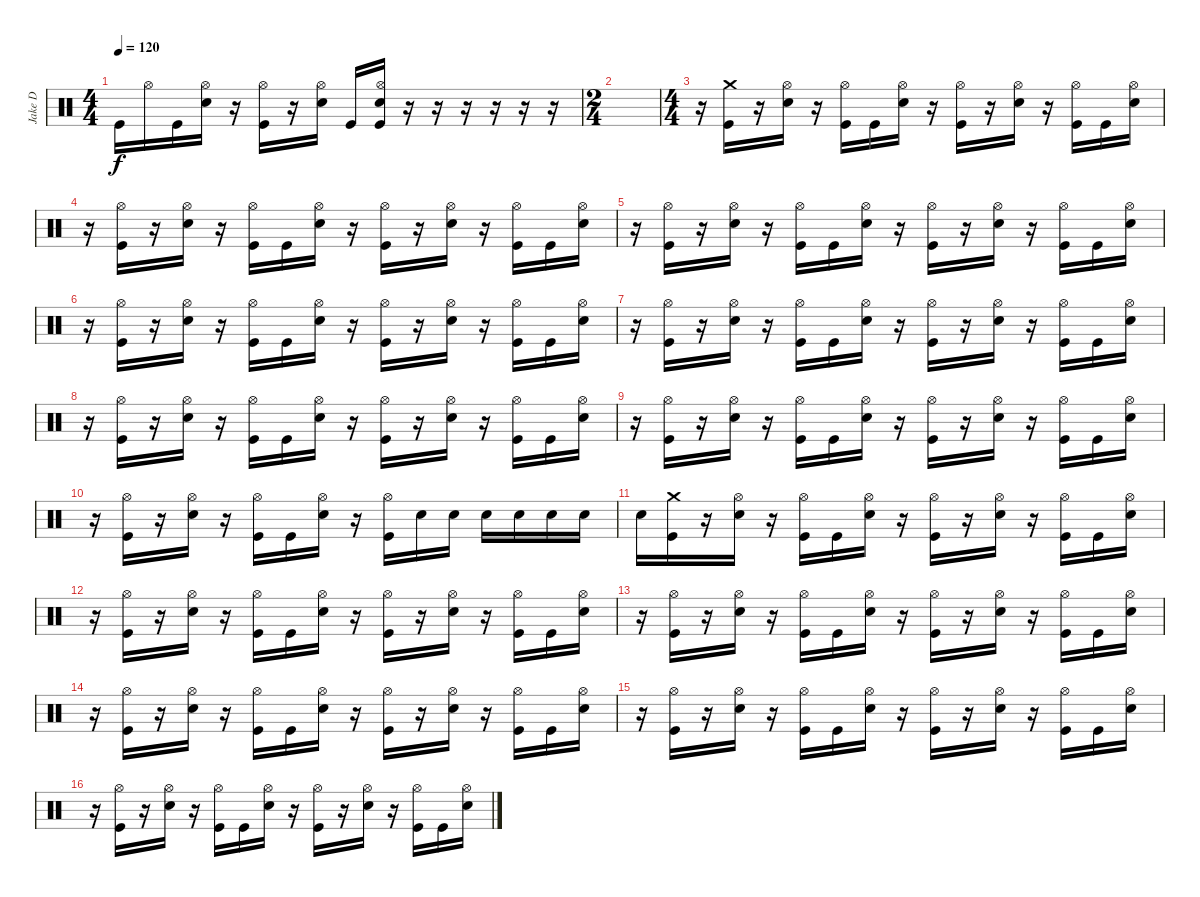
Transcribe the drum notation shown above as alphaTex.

\track ("Jake D" "Jake D") {instrument percussion}
\staff {score}
\articulation defaults
\ts (4 4)
\tempo 120
\clef neutral
\ks c "Kick (hit)".16{dy f} "Hi-Hat (open)".16 "Kick (hit)".16
("Hi-Hat (open)" "Electric Snare (hit)").16 r.16 ("Hi-Hat (open)" "Kick (hit)").16 r.16 ("Hi-Hat (open)" "Electric Snare (hit)").16 "Kick (hit)".16 ("Hi-Hat (open)" "Electric Snare (hit)" "Kick (hit)").16 r.16 r.16 r.16 r.16 r.16 r.16 |
\ts (2 4)
|
\ts (4 4)
r.16 ("Crash medium (hit)" "Kick (hit)").16 r.16 ("Hi-Hat (open)" "Electric Snare (hit)").16 r.16 ("Hi-Hat (open)" "Kick (hit)").16 "Kick (hit)".16 ("Hi-Hat (open)" "Electric Snare (hit)").16 r.16 ("Hi-Hat (open)" "Kick (hit)").16 r.16 ("Hi-Hat (open)" "Electric Snare (hit)").16 r.16 ("Hi-Hat (open)" "Kick (hit)").16 "Kick (hit)".16 ("Hi-Hat (open)" "Electric Snare (hit)").16 |
r.16 ("Hi-Hat (open)" "Kick (hit)").16 r.16 ("Hi-Hat (open)" "Electric Snare (hit)").16 r.16 ("Hi-Hat (open)" "Kick (hit)").16 "Kick (hit)".16 ("Hi-Hat (open)" "Electric Snare (hit)").16 r.16 ("Hi-Hat (open)" "Kick (hit)").16 r.16 ("Hi-Hat (open)" "Electric Snare (hit)").16 r.16 ("Hi-Hat (open)" "Kick (hit)").16 "Kick (hit)".16 ("Hi-Hat (open)" "Electric Snare (hit)").16 |
r.16 ("Hi-Hat (open)" "Kick (hit)").16 r.16 ("Hi-Hat (open)" "Electric Snare (hit)").16 r.16 ("Hi-Hat (open)" "Kick (hit)").16 "Kick (hit)".16 ("Hi-Hat (open)" "Electric Snare (hit)").16 r.16 ("Hi-Hat (open)" "Kick (hit)").16 r.16 ("Hi-Hat (open)" "Electric Snare (hit)").16 r.16 ("Hi-Hat (open)" "Kick (hit)").16 "Kick (hit)".16 ("Hi-Hat (open)" "Electric Snare (hit)").16 |
r.16 ("Hi-Hat (open)" "Kick (hit)").16 r.16 ("Hi-Hat (open)" "Electric Snare (hit)").16 r.16 ("Hi-Hat (open)" "Kick (hit)").16 "Kick (hit)".16 ("Hi-Hat (open)" "Electric Snare (hit)").16 r.16 ("Hi-Hat (open)" "Kick (hit)").16 r.16 ("Hi-Hat (open)" "Electric Snare (hit)").16 r.16 ("Hi-Hat (open)" "Kick (hit)").16 "Kick (hit)".16 ("Hi-Hat (open)" "Electric Snare (hit)").16 |
r.16 ("Hi-Hat (open)" "Kick (hit)").16 r.16 ("Hi-Hat (open)" "Electric Snare (hit)").16 r.16 ("Hi-Hat (open)" "Kick (hit)").16 "Kick (hit)".16 ("Hi-Hat (open)" "Electric Snare (hit)").16 r.16 ("Hi-Hat (open)" "Kick (hit)").16 r.16 ("Hi-Hat (open)" "Electric Snare (hit)").16 r.16 ("Hi-Hat (open)" "Kick (hit)").16 "Kick (hit)".16 ("Hi-Hat (open)" "Electric Snare (hit)").16 |
r.16 ("Hi-Hat (open)" "Kick (hit)").16 r.16 ("Hi-Hat (open)" "Electric Snare (hit)").16 r.16 ("Hi-Hat (open)" "Kick (hit)").16 "Kick (hit)".16 ("Hi-Hat (open)" "Electric Snare (hit)").16 r.16 ("Hi-Hat (open)" "Kick (hit)").16 r.16 ("Hi-Hat (open)" "Electric Snare (hit)").16 r.16 ("Hi-Hat (open)" "Kick (hit)").16 "Kick (hit)".16 ("Hi-Hat (open)" "Electric Snare (hit)").16 |
r.16 ("Hi-Hat (open)" "Kick (hit)").16 r.16 ("Hi-Hat (open)" "Electric Snare (hit)").16 r.16 ("Hi-Hat (open)" "Kick (hit)").16 "Kick (hit)".16 ("Hi-Hat (open)" "Electric Snare (hit)").16 r.16 ("Hi-Hat (open)" "Kick (hit)").16 r.16 ("Hi-Hat (open)" "Electric Snare (hit)").16 r.16 ("Hi-Hat (open)" "Kick (hit)").16 "Kick (hit)".16 ("Hi-Hat (open)" "Electric Snare (hit)").16 |
r.16 ("Hi-Hat (open)" "Kick (hit)").16 r.16 ("Hi-Hat (open)" "Electric Snare (hit)").16 r.16 ("Hi-Hat (open)" "Kick (hit)").16 "Kick (hit)".16 ("Hi-Hat (open)" "Electric Snare (hit)").16 r.16 ("Hi-Hat (open)" "Kick (hit)").16 "Electric Snare (hit)".16 "Electric Snare (hit)".16 "Electric Snare (hit)".16 "Electric Snare (hit)".16 "Electric Snare (hit)".16 "Electric Snare (hit)".16 |
"Electric Snare (hit)".16 ("Crash medium (hit)" "Kick (hit)").16 r.16 ("Hi-Hat (open)" "Electric Snare (hit)").16 r.16 ("Hi-Hat (open)" "Kick (hit)").16 "Kick (hit)".16 ("Hi-Hat (open)" "Electric Snare (hit)").16 r.16 ("Hi-Hat (open)" "Kick (hit)").16 r.16 ("Hi-Hat (open)" "Electric Snare (hit)").16 r.16 ("Hi-Hat (open)" "Kick (hit)").16 "Kick (hit)".16 ("Hi-Hat (open)" "Electric Snare (hit)").16 |
r.16 ("Hi-Hat (open)" "Kick (hit)").16 r.16 ("Hi-Hat (open)" "Electric Snare (hit)").16 r.16 ("Hi-Hat (open)" "Kick (hit)").16 "Kick (hit)".16 ("Hi-Hat (open)" "Electric Snare (hit)").16 r.16 ("Hi-Hat (open)" "Kick (hit)").16 r.16 ("Hi-Hat (open)" "Electric Snare (hit)").16 r.16 ("Hi-Hat (open)" "Kick (hit)").16 "Kick (hit)".16 ("Hi-Hat (open)" "Electric Snare (hit)").16 |
r.16 ("Hi-Hat (open)" "Kick (hit)").16 r.16 ("Hi-Hat (open)" "Electric Snare (hit)").16 r.16 ("Hi-Hat (open)" "Kick (hit)").16 "Kick (hit)".16 ("Hi-Hat (open)" "Electric Snare (hit)").16 r.16 ("Hi-Hat (open)" "Kick (hit)").16 r.16 ("Hi-Hat (open)" "Electric Snare (hit)").16 r.16 ("Hi-Hat (open)" "Kick (hit)").16 "Kick (hit)".16 ("Hi-Hat (open)" "Electric Snare (hit)").16 |
r.16 ("Hi-Hat (open)" "Kick (hit)").16 r.16 ("Hi-Hat (open)" "Electric Snare (hit)").16 r.16 ("Hi-Hat (open)" "Kick (hit)").16 "Kick (hit)".16 ("Hi-Hat (open)" "Electric Snare (hit)").16 r.16 ("Hi-Hat (open)" "Kick (hit)").16 r.16 ("Hi-Hat (open)" "Electric Snare (hit)").16 r.16 ("Hi-Hat (open)" "Kick (hit)").16 "Kick (hit)".16 ("Hi-Hat (open)" "Electric Snare (hit)").16 |
r.16 ("Hi-Hat (open)" "Kick (hit)").16 r.16 ("Hi-Hat (open)" "Electric Snare (hit)").16 r.16 ("Hi-Hat (open)" "Kick (hit)").16 "Kick (hit)".16 ("Hi-Hat (open)" "Electric Snare (hit)").16 r.16 ("Hi-Hat (open)" "Kick (hit)").16 r.16 ("Hi-Hat (open)" "Electric Snare (hit)").16 r.16 ("Hi-Hat (open)" "Kick (hit)").16 "Kick (hit)".16 ("Hi-Hat (open)" "Electric Snare (hit)").16 |
r.16 ("Hi-Hat (open)" "Kick (hit)").16 r.16 ("Hi-Hat (open)" "Electric Snare (hit)").16 r.16 ("Hi-Hat (open)" "Kick (hit)").16 "Kick (hit)".16 ("Hi-Hat (open)" "Electric Snare (hit)").16 r.16 ("Hi-Hat (open)" "Kick (hit)").16 r.16 ("Hi-Hat (open)" "Electric Snare (hit)").16 r.16 ("Hi-Hat (open)" "Kick (hit)").16 "Kick (hit)".16 ("Hi-Hat (open)" "Electric Snare (hit)").16
